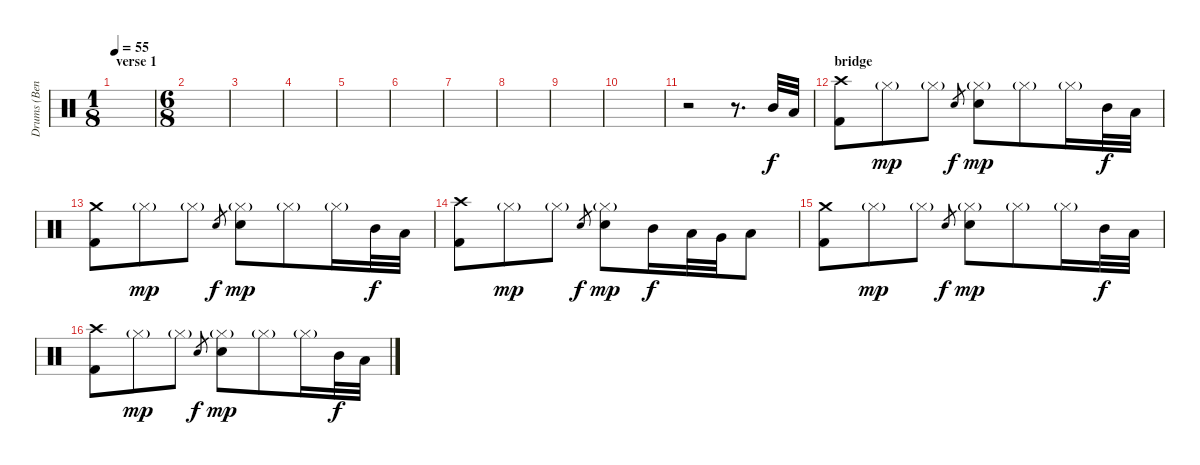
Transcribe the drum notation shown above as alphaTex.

\track ("Drums (Bengerg)" "Drums (Ben") {instrument percussion}
\staff {score}
\articulation defaults
\ts (1 8)
\section ("" "verse 1")
\tempo 55
\clef neutral
\ks c
|
\ts (6 8)
|
|
|
|
|
|
|
|
|
r.2 r.8{d} "Mid Tom (hit)".32 "Low Tom (hit)".32 |
\section ("" "bridge")
("Crash high (hit)" "Kick (hit) 2").8 "Hi-Hat (closed)"{g}.8{dy mp} "Hi-Hat (closed)"{g}.8 "Electric Snare (hit)".8{gr dy f} ("Hi-Hat (closed)"{g} "Electric Snare (hit)").8{dy mp} "Hi-Hat (closed)"{g}.8 "Hi-Hat (closed)"{g}.16 "Mid Tom (hit)".32{dy f} "Low Tom (hit)".32 |
("Crash medium (hit)" "Kick (hit) 2").8 "Hi-Hat (closed)"{g}.8{dy mp} "Hi-Hat (closed)"{g}.8 "Electric Snare (hit)".8{gr dy f} ("Hi-Hat (closed)"{g} "Electric Snare (hit)").8{dy mp} "Hi-Hat (closed)"{g}.8 "Hi-Hat (closed)"{g}.16 "Mid Tom (hit)".32{dy f} "Low Tom (hit)".32 |
("Crash high (hit)" "Kick (hit) 2").8 "Hi-Hat (closed)"{g}.8{dy mp} "Hi-Hat (closed)"{g}.8 "Electric Snare (hit)".8{gr dy f} ("Hi-Hat (closed)"{g} "Electric Snare (hit)").8{dy mp} "Mid Tom (hit)".16{dy f} "Low Tom (hit)".32 "Very Low Tom (hit)".32 "Low Floor Tom (hit)".8 |
("Crash medium (hit)" "Kick (hit) 2").8 "Hi-Hat (closed)"{g}.8{dy mp} "Hi-Hat (closed)"{g}.8 "Electric Snare (hit)".8{gr dy f} ("Hi-Hat (closed)"{g} "Electric Snare (hit)").8{dy mp} "Hi-Hat (closed)"{g}.8 "Hi-Hat (closed)"{g}.16 "Mid Tom (hit)".32{dy f} "Low Tom (hit)".32 |
("Crash high (hit)" "Kick (hit) 2").8 "Hi-Hat (closed)"{g}.8{dy mp} "Hi-Hat (closed)"{g}.8 "Electric Snare (hit)".8{gr dy f} ("Hi-Hat (closed)"{g} "Electric Snare (hit)").8{dy mp} "Hi-Hat (closed)"{g}.8 "Hi-Hat (closed)"{g}.16 "Mid Tom (hit)".32{dy f} "Low Tom (hit)".32
